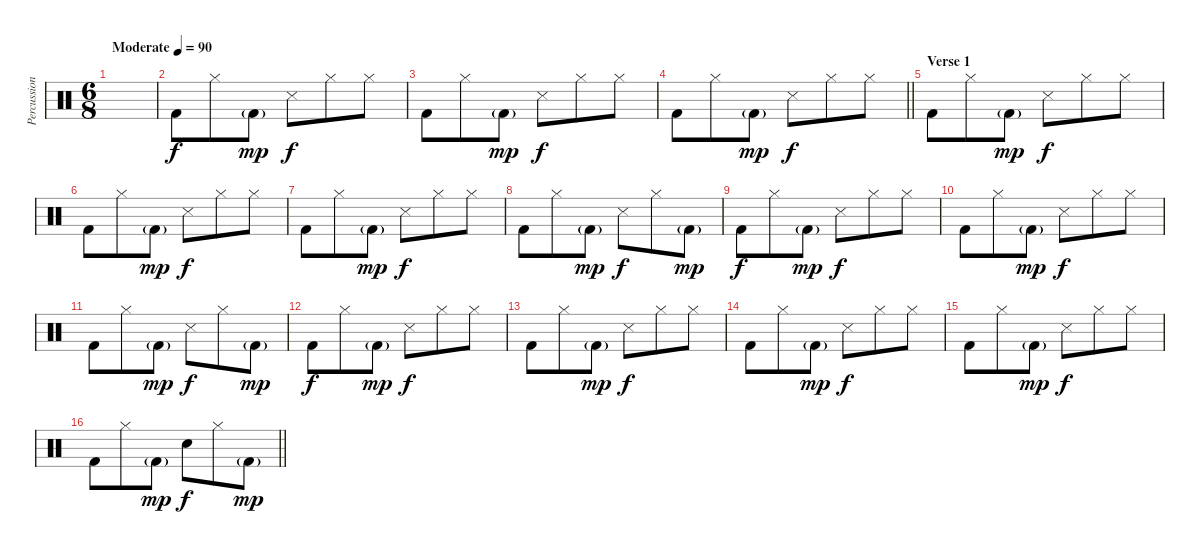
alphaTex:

\track ("Percussion" "Percussion") {instrument percussion}
\staff {score}
\articulation defaults
\ts (6 8)
\tempo (90 "Moderate")
\clef neutral
\ks c
|
"Kick (hit) 2".8 "Hi-Hat (closed)".8 "Kick (hit) 2"{g}.8{dy mp} "Snare (side stick) 3".8{dy f} "Hi-Hat (closed)".8 "Hi-Hat (closed)".8 |
"Kick (hit) 2".8 "Hi-Hat (closed)".8 "Kick (hit) 2"{g}.8{dy mp} "Snare (side stick) 3".8{dy f} "Hi-Hat (closed)".8 "Hi-Hat (closed)".8 |
\barLineRight lightlight "Kick (hit) 2".8 "Hi-Hat (closed)".8 "Kick (hit) 2"{g}.8{dy mp} "Snare (side stick) 3".8{dy f} "Hi-Hat (closed)".8 "Hi-Hat (closed)".8
|
\section ("" "Verse 1")
"Kick (hit) 2".8 "Hi-Hat (closed)".8 "Kick (hit) 2"{g}.8{dy mp} "Snare (side stick) 3".8{dy f} "Hi-Hat (closed)".8 "Hi-Hat (closed)".8 |
"Kick (hit) 2".8 "Hi-Hat (closed)".8 "Kick (hit) 2"{g}.8{dy mp} "Snare (side stick) 3".8{dy f} "Hi-Hat (closed)".8 "Hi-Hat (closed)".8 |
"Kick (hit) 2".8 "Hi-Hat (closed)".8 "Kick (hit) 2"{g}.8{dy mp} "Snare (side stick) 3".8{dy f} "Hi-Hat (closed)".8 "Hi-Hat (closed)".8 |
"Kick (hit) 2".8 "Hi-Hat (closed)".8 "Kick (hit) 2"{g}.8{dy mp} "Snare (side stick) 3".8{dy f} "Hi-Hat (closed)".8 "Kick (hit) 2"{g}.8{dy mp} |
"Kick (hit) 2".8{dy f} "Hi-Hat (closed)".8 "Kick (hit) 2"{g}.8{dy mp} "Snare (side stick) 3".8{dy f} "Hi-Hat (closed)".8 "Hi-Hat (closed)".8 |
"Kick (hit) 2".8 "Hi-Hat (closed)".8 "Kick (hit) 2"{g}.8{dy mp} "Snare (side stick) 3".8{dy f} "Hi-Hat (closed)".8 "Hi-Hat (closed)".8 |
"Kick (hit) 2".8 "Hi-Hat (closed)".8 "Kick (hit) 2"{g}.8{dy mp} "Snare (side stick) 3".8{dy f} "Hi-Hat (closed)".8 "Kick (hit) 2"{g}.8{dy mp} |
"Kick (hit) 2".8{dy f} "Hi-Hat (closed)".8 "Kick (hit) 2"{g}.8{dy mp} "Snare (side stick) 3".8{dy f} "Hi-Hat (closed)".8 "Hi-Hat (closed)".8 |
"Kick (hit) 2".8 "Hi-Hat (closed)".8 "Kick (hit) 2"{g}.8{dy mp} "Snare (side stick) 3".8{dy f} "Hi-Hat (closed)".8 "Hi-Hat (closed)".8 |
"Kick (hit) 2".8 "Hi-Hat (closed)".8 "Kick (hit) 2"{g}.8{dy mp} "Snare (side stick) 3".8{dy f} "Hi-Hat (closed)".8 "Hi-Hat (closed)".8 |
"Kick (hit) 2".8 "Hi-Hat (closed)".8 "Kick (hit) 2"{g}.8{dy mp} "Snare (side stick) 3".8{dy f} "Hi-Hat (closed)".8 "Hi-Hat (closed)".8 |
\barLineRight lightlight "Kick (hit) 2".8 "Hi-Hat (closed)".8 "Kick (hit) 2"{g}.8{dy mp} "Snare (hit) 2".8{dy f} "Hi-Hat (closed)".8 "Kick (hit) 2"{g}.8{dy mp}
